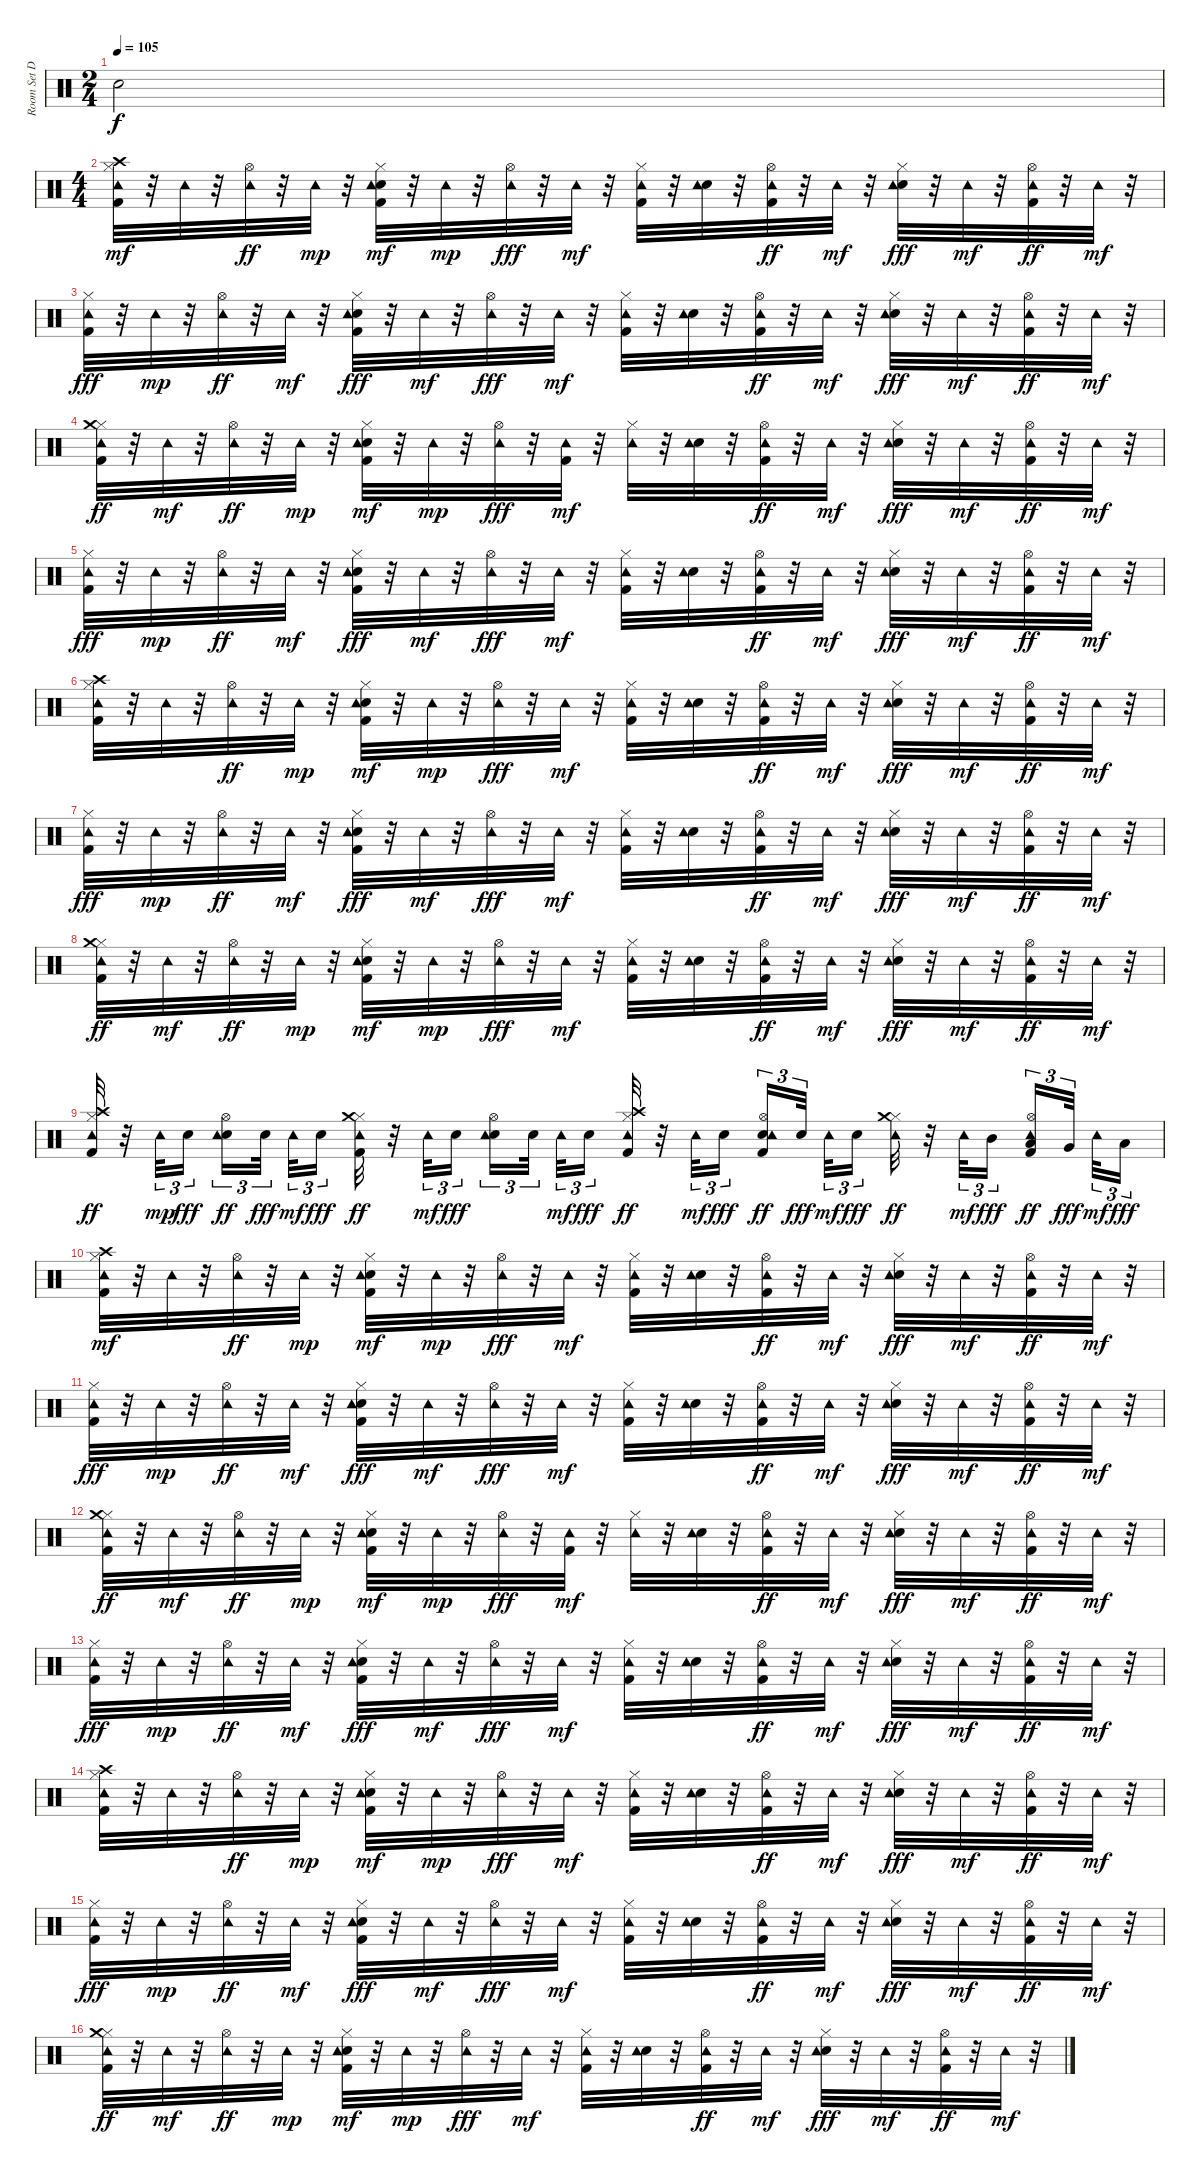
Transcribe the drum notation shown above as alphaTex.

\track ("Room Set Drums" "Room Set D") {instrument percussion}
\staff {score}
\articulation defaults
\ts (2 4)
\tempo 105
\clef neutral
\ks c "Snare (hit)"{t}.2{dy f}
|
\ts (4 4)
("Kick (hit) 2" "Hi-Hat (closed)" "Crash high (hit)" "Tambourine (hit)").32{dy mf} r.32 "Tambourine (hit)".32 r.32 ("Hi-Hat (open)" "Tambourine (hit)").32{dy ff} r.32 "Tambourine (hit)".32{dy mp} r.32 ("Kick (hit) 2" "Electric Snare (hit)" "Hi-Hat (closed)" "Tambourine (hit)").32{dy mf} r.32 "Tambourine (hit)".32{dy mp} r.32 ("Hi-Hat (open)" "Tambourine (hit)").32{dy fff} r.32 "Tambourine (hit)".32{dy mf} r.32 ("Kick (hit) 2" "Hi-Hat (closed)" "Tambourine (hit)").32 r.32 ("Electric Snare (hit)" "Tambourine (hit)").32 r.32 ("Kick (hit) 2" "Hi-Hat (open)" "Tambourine (hit)").32{dy ff} r.32 "Tambourine (hit)".32{dy mf} r.32 ("Electric Snare (hit)" "Hi-Hat (closed)" "Tambourine (hit)").32{dy fff} r.32 "Tambourine (hit)".32{dy mf} r.32 ("Kick (hit) 2" "Hi-Hat (open)" "Tambourine (hit)").32{dy ff} r.32 "Tambourine (hit)".32{dy mf} r.32 |
("Kick (hit) 2" "Hi-Hat (closed)" "Tambourine (hit)").32{dy fff} r.32 "Tambourine (hit)".32{dy mp} r.32 ("Hi-Hat (open)" "Tambourine (hit)").32{dy ff} r.32 "Tambourine (hit)".32{dy mf} r.32 ("Kick (hit) 2" "Electric Snare (hit)" "Hi-Hat (closed)" "Tambourine (hit)").32{dy fff} r.32 "Tambourine (hit)".32{dy mf} r.32 ("Hi-Hat (open)" "Tambourine (hit)").32{dy fff} r.32 "Tambourine (hit)".32{dy mf} r.32 ("Kick (hit) 2" "Hi-Hat (closed)" "Tambourine (hit)").32 r.32 ("Electric Snare (hit)" "Tambourine (hit)").32 r.32 ("Kick (hit) 2" "Hi-Hat (open)" "Tambourine (hit)").32{dy ff} r.32 "Tambourine (hit)".32{dy mf} r.32 ("Electric Snare (hit)" "Hi-Hat (closed)" "Tambourine (hit)").32{dy fff} r.32 "Tambourine (hit)".32{dy mf} r.32 ("Kick (hit) 2" "Hi-Hat (open)" "Tambourine (hit)").32{dy ff} r.32 "Tambourine (hit)".32{dy mf} r.32 |
("Kick (hit) 2" "Hi-Hat (closed)" "Tambourine (hit)" "Crash medium (hit)").32{dy ff} r.32 "Tambourine (hit)".32{dy mf} r.32 ("Hi-Hat (open)" "Tambourine (hit)").32{dy ff} r.32 "Tambourine (hit)".32{dy mp} r.32 ("Kick (hit) 2" "Electric Snare (hit)" "Hi-Hat (closed)" "Tambourine (hit)").32{dy mf} r.32 "Tambourine (hit)".32{dy mp} r.32 ("Hi-Hat (open)" "Tambourine (hit)").32{dy fff} r.32 ("Kick (hit) 2" "Tambourine (hit)").32{dy mf} r.32 ("Hi-Hat (closed)" "Tambourine (hit)").32 r.32 ("Electric Snare (hit)" "Tambourine (hit)").32 r.32 ("Kick (hit) 2" "Hi-Hat (open)" "Tambourine (hit)").32{dy ff} r.32 "Tambourine (hit)".32{dy mf} r.32 ("Electric Snare (hit)" "Hi-Hat (closed)" "Tambourine (hit)").32{dy fff} r.32 "Tambourine (hit)".32{dy mf} r.32 ("Kick (hit) 2" "Hi-Hat (open)" "Tambourine (hit)").32{dy ff} r.32 "Tambourine (hit)".32{dy mf} r.32 |
("Kick (hit) 2" "Hi-Hat (closed)" "Tambourine (hit)").32{dy fff} r.32 "Tambourine (hit)".32{dy mp} r.32 ("Hi-Hat (open)" "Tambourine (hit)").32{dy ff} r.32 "Tambourine (hit)".32{dy mf} r.32 ("Kick (hit) 2" "Electric Snare (hit)" "Hi-Hat (closed)" "Tambourine (hit)").32{dy fff} r.32 "Tambourine (hit)".32{dy mf} r.32 ("Hi-Hat (open)" "Tambourine (hit)").32{dy fff} r.32 "Tambourine (hit)".32{dy mf} r.32 ("Kick (hit) 2" "Hi-Hat (closed)" "Tambourine (hit)").32 r.32 ("Electric Snare (hit)" "Tambourine (hit)").32 r.32 ("Kick (hit) 2" "Hi-Hat (open)" "Tambourine (hit)").32{dy ff} r.32 "Tambourine (hit)".32{dy mf} r.32 ("Electric Snare (hit)" "Hi-Hat (closed)" "Tambourine (hit)").32{dy fff} r.32 "Tambourine (hit)".32{dy mf} r.32 ("Kick (hit) 2" "Hi-Hat (open)" "Tambourine (hit)").32{dy ff} r.32 "Tambourine (hit)".32{dy mf} r.32 |
("Kick (hit) 2" "Hi-Hat (closed)" "Crash high (hit)" "Tambourine (hit)").32 r.32 "Tambourine (hit)".32 r.32 ("Hi-Hat (open)" "Tambourine (hit)").32{dy ff} r.32 "Tambourine (hit)".32{dy mp} r.32 ("Kick (hit) 2" "Electric Snare (hit)" "Hi-Hat (closed)" "Tambourine (hit)").32{dy mf} r.32 "Tambourine (hit)".32{dy mp} r.32 ("Hi-Hat (open)" "Tambourine (hit)").32{dy fff} r.32 "Tambourine (hit)".32{dy mf} r.32 ("Kick (hit) 2" "Hi-Hat (closed)" "Tambourine (hit)").32 r.32 ("Electric Snare (hit)" "Tambourine (hit)").32 r.32 ("Kick (hit) 2" "Hi-Hat (open)" "Tambourine (hit)").32{dy ff} r.32 "Tambourine (hit)".32{dy mf} r.32 ("Electric Snare (hit)" "Hi-Hat (closed)" "Tambourine (hit)").32{dy fff} r.32 "Tambourine (hit)".32{dy mf} r.32 ("Kick (hit) 2" "Hi-Hat (open)" "Tambourine (hit)").32{dy ff} r.32 "Tambourine (hit)".32{dy mf} r.32 |
("Kick (hit) 2" "Hi-Hat (closed)" "Tambourine (hit)").32{dy fff} r.32 "Tambourine (hit)".32{dy mp} r.32 ("Hi-Hat (open)" "Tambourine (hit)").32{dy ff} r.32 "Tambourine (hit)".32{dy mf} r.32 ("Kick (hit) 2" "Electric Snare (hit)" "Hi-Hat (closed)" "Tambourine (hit)").32{dy fff} r.32 "Tambourine (hit)".32{dy mf} r.32 ("Hi-Hat (open)" "Tambourine (hit)").32{dy fff} r.32 "Tambourine (hit)".32{dy mf} r.32 ("Kick (hit) 2" "Hi-Hat (closed)" "Tambourine (hit)").32 r.32 ("Electric Snare (hit)" "Tambourine (hit)").32 r.32 ("Kick (hit) 2" "Hi-Hat (open)" "Tambourine (hit)").32{dy ff} r.32 "Tambourine (hit)".32{dy mf} r.32 ("Electric Snare (hit)" "Hi-Hat (closed)" "Tambourine (hit)").32{dy fff} r.32 "Tambourine (hit)".32{dy mf} r.32 ("Kick (hit) 2" "Hi-Hat (open)" "Tambourine (hit)").32{dy ff} r.32 "Tambourine (hit)".32{dy mf} r.32 |
("Kick (hit) 2" "Hi-Hat (closed)" "Tambourine (hit)" "Crash medium (hit)").32{dy ff} r.32 "Tambourine (hit)".32{dy mf} r.32 ("Hi-Hat (open)" "Tambourine (hit)").32{dy ff} r.32 "Tambourine (hit)".32{dy mp} r.32 ("Kick (hit) 2" "Electric Snare (hit)" "Hi-Hat (closed)" "Tambourine (hit)").32{dy mf} r.32 "Tambourine (hit)".32{dy mp} r.32 ("Hi-Hat (open)" "Tambourine (hit)").32{dy fff} r.32 "Tambourine (hit)".32{dy mf} r.32 ("Kick (hit) 2" "Hi-Hat (closed)" "Tambourine (hit)").32 r.32 ("Electric Snare (hit)" "Tambourine (hit)").32 r.32 ("Kick (hit) 2" "Hi-Hat (open)" "Tambourine (hit)").32{dy ff} r.32 "Tambourine (hit)".32{dy mf} r.32 ("Electric Snare (hit)" "Hi-Hat (closed)" "Tambourine (hit)").32{dy fff} r.32 "Tambourine (hit)".32{dy mf} r.32 ("Kick (hit) 2" "Hi-Hat (open)" "Tambourine (hit)").32{dy ff} r.32 "Tambourine (hit)".32{dy mf} r.32 |
("Kick (hit) 2" "Hi-Hat (closed)" "Crash high (hit)" "Tambourine (hit)").32{dy ff} r.32 "Tambourine (hit)".32{tu (3 2) dy mp} "Electric Snare (hit)".16{tu (3 2) dy fff} ("Electric Snare (hit)" "Hi-Hat (open)" "Tambourine (hit)").16{tu (3 2) dy ff} "Electric Snare (hit)".32{tu (3 2) dy fff} "Tambourine (hit)".32{tu (3 2) dy mf} "Electric Snare (hit)".16{tu (3 2) dy fff} ("Kick (hit) 2" "Hi-Hat (closed)" "Tambourine (hit)" "Crash medium (hit)").32{dy ff} r.32 "Tambourine (hit)".32{tu (3 2) dy mf} "Electric Snare (hit)".16{tu (3 2) dy fff} ("Electric Snare (hit)" "Hi-Hat (open)" "Tambourine (hit)").16{tu (3 2)} "Electric Snare (hit)".32{tu (3 2)} "Tambourine (hit)".32{tu (3 2) dy mf} "Electric Snare (hit)".16{tu (3 2) dy fff} ("Kick (hit) 2" "Hi-Hat (closed)" "Crash high (hit)" "Tambourine (hit)").32{dy ff} r.32 "Tambourine (hit)".32{tu (3 2) dy mf} "Electric Snare (hit)".16{tu (3 2) dy fff} ("Kick (hit) 2" "Electric Snare (hit)" "Hi-Hat (open)" "Tambourine (hit)").16{tu (3 2) dy ff} "Electric Snare (hit)".32{tu (3 2) dy fff} "Tambourine (hit)".32{tu (3 2) dy mf} "Electric Snare (hit)".16{tu (3 2) dy fff} ("Hi-Hat (closed)" "Tambourine (hit)" "Crash medium (hit)").32{dy ff} r.32 "Tambourine (hit)".32{tu (3 2) dy mf} "Mid Tom (hit)".16{tu (3 2) dy fff} ("Kick (hit) 2" "Low Tom (hit)" "Hi-Hat (open)" "Tambourine (hit)").16{tu (3 2) dy ff} "Very Low Tom (hit)".32{tu (3 2) dy fff} "Tambourine (hit)".32{tu (3 2) dy mf} "Low Floor Tom (hit)".16{tu (3 2) dy fff} |
("Kick (hit) 2" "Hi-Hat (closed)" "Crash high (hit)" "Tambourine (hit)").32{dy mf} r.32 "Tambourine (hit)".32 r.32 ("Hi-Hat (open)" "Tambourine (hit)").32{dy ff} r.32 "Tambourine (hit)".32{dy mp} r.32 ("Kick (hit) 2" "Electric Snare (hit)" "Hi-Hat (closed)" "Tambourine (hit)").32{dy mf} r.32 "Tambourine (hit)".32{dy mp} r.32 ("Hi-Hat (open)" "Tambourine (hit)").32{dy fff} r.32 "Tambourine (hit)".32{dy mf} r.32 ("Kick (hit) 2" "Hi-Hat (closed)" "Tambourine (hit)").32 r.32 ("Electric Snare (hit)" "Tambourine (hit)").32 r.32 ("Kick (hit) 2" "Hi-Hat (open)" "Tambourine (hit)").32{dy ff} r.32 "Tambourine (hit)".32{dy mf} r.32 ("Electric Snare (hit)" "Hi-Hat (closed)" "Tambourine (hit)").32{dy fff} r.32 "Tambourine (hit)".32{dy mf} r.32 ("Kick (hit) 2" "Hi-Hat (open)" "Tambourine (hit)").32{dy ff} r.32 "Tambourine (hit)".32{dy mf} r.32 |
("Kick (hit) 2" "Hi-Hat (closed)" "Tambourine (hit)").32{dy fff} r.32 "Tambourine (hit)".32{dy mp} r.32 ("Hi-Hat (open)" "Tambourine (hit)").32{dy ff} r.32 "Tambourine (hit)".32{dy mf} r.32 ("Kick (hit) 2" "Electric Snare (hit)" "Hi-Hat (closed)" "Tambourine (hit)").32{dy fff} r.32 "Tambourine (hit)".32{dy mf} r.32 ("Hi-Hat (open)" "Tambourine (hit)").32{dy fff} r.32 "Tambourine (hit)".32{dy mf} r.32 ("Kick (hit) 2" "Hi-Hat (closed)" "Tambourine (hit)").32 r.32 ("Electric Snare (hit)" "Tambourine (hit)").32 r.32 ("Kick (hit) 2" "Hi-Hat (open)" "Tambourine (hit)").32{dy ff} r.32 "Tambourine (hit)".32{dy mf} r.32 ("Electric Snare (hit)" "Hi-Hat (closed)" "Tambourine (hit)").32{dy fff} r.32 "Tambourine (hit)".32{dy mf} r.32 ("Kick (hit) 2" "Hi-Hat (open)" "Tambourine (hit)").32{dy ff} r.32 "Tambourine (hit)".32{dy mf} r.32 |
("Kick (hit) 2" "Hi-Hat (closed)" "Tambourine (hit)" "Crash medium (hit)").32{dy ff} r.32 "Tambourine (hit)".32{dy mf} r.32 ("Hi-Hat (open)" "Tambourine (hit)").32{dy ff} r.32 "Tambourine (hit)".32{dy mp} r.32 ("Kick (hit) 2" "Electric Snare (hit)" "Hi-Hat (closed)" "Tambourine (hit)").32{dy mf} r.32 "Tambourine (hit)".32{dy mp} r.32 ("Hi-Hat (open)" "Tambourine (hit)").32{dy fff} r.32 ("Kick (hit) 2" "Tambourine (hit)").32{dy mf} r.32 ("Hi-Hat (closed)" "Tambourine (hit)").32 r.32 ("Electric Snare (hit)" "Tambourine (hit)").32 r.32 ("Kick (hit) 2" "Hi-Hat (open)" "Tambourine (hit)").32{dy ff} r.32 "Tambourine (hit)".32{dy mf} r.32 ("Electric Snare (hit)" "Hi-Hat (closed)" "Tambourine (hit)").32{dy fff} r.32 "Tambourine (hit)".32{dy mf} r.32 ("Kick (hit) 2" "Hi-Hat (open)" "Tambourine (hit)").32{dy ff} r.32 "Tambourine (hit)".32{dy mf} r.32 |
("Kick (hit) 2" "Hi-Hat (closed)" "Tambourine (hit)").32{dy fff} r.32 "Tambourine (hit)".32{dy mp} r.32 ("Hi-Hat (open)" "Tambourine (hit)").32{dy ff} r.32 "Tambourine (hit)".32{dy mf} r.32 ("Kick (hit) 2" "Electric Snare (hit)" "Hi-Hat (closed)" "Tambourine (hit)").32{dy fff} r.32 "Tambourine (hit)".32{dy mf} r.32 ("Hi-Hat (open)" "Tambourine (hit)").32{dy fff} r.32 "Tambourine (hit)".32{dy mf} r.32 ("Kick (hit) 2" "Hi-Hat (closed)" "Tambourine (hit)").32 r.32 ("Electric Snare (hit)" "Tambourine (hit)").32 r.32 ("Kick (hit) 2" "Hi-Hat (open)" "Tambourine (hit)").32{dy ff} r.32 "Tambourine (hit)".32{dy mf} r.32 ("Electric Snare (hit)" "Hi-Hat (closed)" "Tambourine (hit)").32{dy fff} r.32 "Tambourine (hit)".32{dy mf} r.32 ("Kick (hit) 2" "Hi-Hat (open)" "Tambourine (hit)").32{dy ff} r.32 "Tambourine (hit)".32{dy mf} r.32 |
("Kick (hit) 2" "Hi-Hat (closed)" "Crash high (hit)" "Tambourine (hit)").32 r.32 "Tambourine (hit)".32 r.32 ("Hi-Hat (open)" "Tambourine (hit)").32{dy ff} r.32 "Tambourine (hit)".32{dy mp} r.32 ("Kick (hit) 2" "Electric Snare (hit)" "Hi-Hat (closed)" "Tambourine (hit)").32{dy mf} r.32 "Tambourine (hit)".32{dy mp} r.32 ("Hi-Hat (open)" "Tambourine (hit)").32{dy fff} r.32 "Tambourine (hit)".32{dy mf} r.32 ("Kick (hit) 2" "Hi-Hat (closed)" "Tambourine (hit)").32 r.32 ("Electric Snare (hit)" "Tambourine (hit)").32 r.32 ("Kick (hit) 2" "Hi-Hat (open)" "Tambourine (hit)").32{dy ff} r.32 "Tambourine (hit)".32{dy mf} r.32 ("Electric Snare (hit)" "Hi-Hat (closed)" "Tambourine (hit)").32{dy fff} r.32 "Tambourine (hit)".32{dy mf} r.32 ("Kick (hit) 2" "Hi-Hat (open)" "Tambourine (hit)").32{dy ff} r.32 "Tambourine (hit)".32{dy mf} r.32 |
("Kick (hit) 2" "Hi-Hat (closed)" "Tambourine (hit)").32{dy fff} r.32 "Tambourine (hit)".32{dy mp} r.32 ("Hi-Hat (open)" "Tambourine (hit)").32{dy ff} r.32 "Tambourine (hit)".32{dy mf} r.32 ("Kick (hit) 2" "Electric Snare (hit)" "Hi-Hat (closed)" "Tambourine (hit)").32{dy fff} r.32 "Tambourine (hit)".32{dy mf} r.32 ("Hi-Hat (open)" "Tambourine (hit)").32{dy fff} r.32 "Tambourine (hit)".32{dy mf} r.32 ("Kick (hit) 2" "Hi-Hat (closed)" "Tambourine (hit)").32 r.32 ("Electric Snare (hit)" "Tambourine (hit)").32 r.32 ("Kick (hit) 2" "Hi-Hat (open)" "Tambourine (hit)").32{dy ff} r.32 "Tambourine (hit)".32{dy mf} r.32 ("Electric Snare (hit)" "Hi-Hat (closed)" "Tambourine (hit)").32{dy fff} r.32 "Tambourine (hit)".32{dy mf} r.32 ("Kick (hit) 2" "Hi-Hat (open)" "Tambourine (hit)").32{dy ff} r.32 "Tambourine (hit)".32{dy mf} r.32 |
("Kick (hit) 2" "Hi-Hat (closed)" "Tambourine (hit)" "Crash medium (hit)").32{dy ff} r.32 "Tambourine (hit)".32{dy mf} r.32 ("Hi-Hat (open)" "Tambourine (hit)").32{dy ff} r.32 "Tambourine (hit)".32{dy mp} r.32 ("Kick (hit) 2" "Electric Snare (hit)" "Hi-Hat (closed)" "Tambourine (hit)").32{dy mf} r.32 "Tambourine (hit)".32{dy mp} r.32 ("Hi-Hat (open)" "Tambourine (hit)").32{dy fff} r.32 "Tambourine (hit)".32{dy mf} r.32 ("Kick (hit) 2" "Hi-Hat (closed)" "Tambourine (hit)").32 r.32 ("Electric Snare (hit)" "Tambourine (hit)").32 r.32 ("Kick (hit) 2" "Hi-Hat (open)" "Tambourine (hit)").32{dy ff} r.32 "Tambourine (hit)".32{dy mf} r.32 ("Electric Snare (hit)" "Hi-Hat (closed)" "Tambourine (hit)").32{dy fff} r.32 "Tambourine (hit)".32{dy mf} r.32 ("Kick (hit) 2" "Hi-Hat (open)" "Tambourine (hit)").32{dy ff} r.32 "Tambourine (hit)".32{dy mf} r.32
